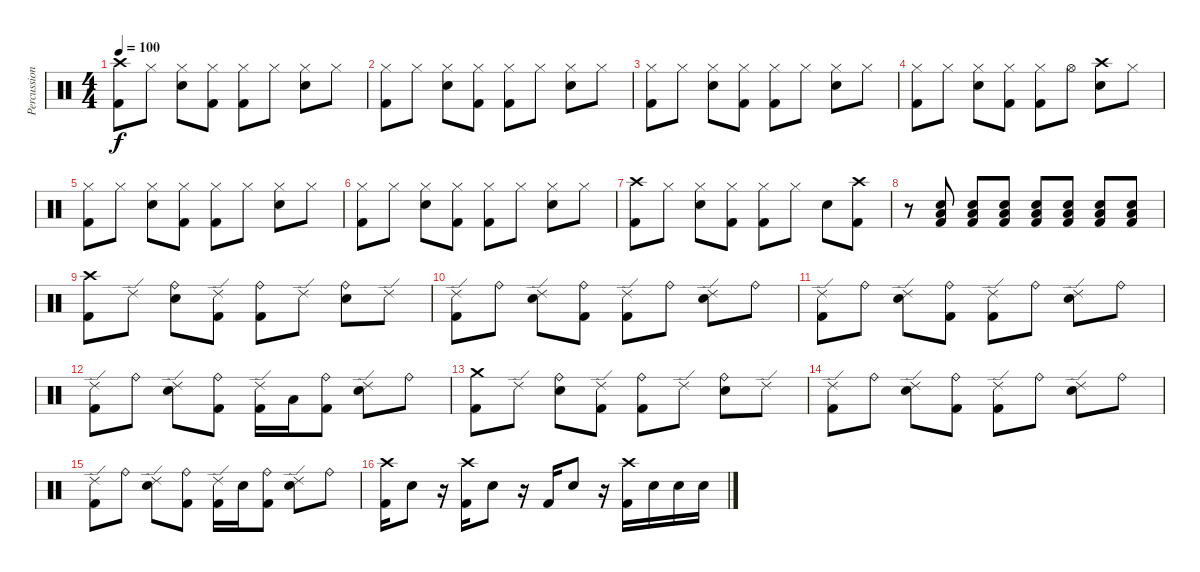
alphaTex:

\track ("Percussion" "Percussion") {instrument percussion}
\staff {score}
\articulation defaults
\ts (4 4)
\tempo 100
\clef neutral
\ks c
("Crash high (hit)" "Kick (hit) 2").8{dy f} "Hi-Hat (closed)".8 ("Hi-Hat (closed)" "Snare (hit) 2").8 ("Hi-Hat (closed)" "Kick (hit) 2").8 ("Hi-Hat (closed)" "Kick (hit) 2").8 "Hi-Hat (closed)".8 ("Hi-Hat (closed)" "Snare (hit) 2").8 "Hi-Hat (closed)".8 |
("Hi-Hat (closed)" "Kick (hit) 2").8 "Hi-Hat (closed)".8 ("Hi-Hat (closed)" "Snare (hit) 2").8 ("Hi-Hat (closed)" "Kick (hit) 2").8 ("Hi-Hat (closed)" "Kick (hit) 2").8 "Hi-Hat (closed)".8 ("Hi-Hat (closed)" "Snare (hit) 2").8 "Hi-Hat (closed)".8 |
("Hi-Hat (closed)" "Kick (hit) 2").8 "Hi-Hat (closed)".8 ("Hi-Hat (closed)" "Snare (hit) 2").8 ("Hi-Hat (closed)" "Kick (hit) 2").8 ("Hi-Hat (closed)" "Kick (hit) 2").8 "Hi-Hat (closed)".8 ("Hi-Hat (closed)" "Snare (hit) 2").8 "Hi-Hat (closed)".8 |
("Hi-Hat (closed)" "Kick (hit) 2").8 "Hi-Hat (closed)".8 ("Hi-Hat (closed)" "Snare (hit) 2").8 ("Hi-Hat (closed)" "Kick (hit) 2").8 ("Hi-Hat (closed)" "Kick (hit) 2").8 "Hi-Hat (open)".8 ("Crash high (hit)" "Snare (hit) 2").8 "Hi-Hat (closed)".8 |
("Hi-Hat (closed)" "Kick (hit) 2").8 "Hi-Hat (closed)".8 ("Hi-Hat (closed)" "Snare (hit) 2").8 ("Hi-Hat (closed)" "Kick (hit) 2").8 ("Hi-Hat (closed)" "Kick (hit) 2").8 "Hi-Hat (closed)".8 ("Hi-Hat (closed)" "Snare (hit) 2").8 "Hi-Hat (closed)".8 |
("Hi-Hat (closed)" "Kick (hit) 2").8 "Hi-Hat (closed)".8 ("Hi-Hat (closed)" "Snare (hit) 2").8 ("Hi-Hat (closed)" "Kick (hit) 2").8 ("Hi-Hat (closed)" "Kick (hit) 2").8 "Hi-Hat (closed)".8 ("Hi-Hat (closed)" "Snare (hit) 2").8 "Hi-Hat (closed)".8 |
("Crash high (hit)" "Kick (hit) 2").8 "Hi-Hat (closed)".8 ("Hi-Hat (closed)" "Snare (hit) 2").8 ("Hi-Hat (closed)" "Kick (hit) 2").8 ("Hi-Hat (closed)" "Kick (hit) 2").8 "Hi-Hat (closed)".8 "Snare (hit) 2".8 ("Crash high (hit)" "Kick (hit) 2").8 |
r.8 ("Low Floor Tom (hit)" "Snare (hit) 2" "Kick (hit) 2").8 ("Low Floor Tom (hit)" "Snare (hit) 2" "Kick (hit) 2").8 ("Low Floor Tom (hit)" "Snare (hit) 2" "Kick (hit) 2").8 ("Low Floor Tom (hit)" "Snare (hit) 2" "Kick (hit) 2").8 ("Low Floor Tom (hit)" "Snare (hit) 2" "Kick (hit) 2").8 ("Low Floor Tom (hit)" "Snare (hit) 2" "Kick (hit) 2").8 ("Low Floor Tom (hit)" "Snare (hit) 2" "Kick (hit) 2").8 |
("Crash high (hit)" "Kick (hit) 2").8 "Ride (edge) 2".8 ("Ride (bell)" "Snare (hit) 2").8 ("Ride (edge) 2" "Kick (hit) 2").8 ("Ride (bell)" "Kick (hit) 2").8 "Ride (edge) 2".8 ("Ride (bell)" "Snare (hit) 2").8 "Ride (edge) 2".8 |
("Ride (edge) 2" "Kick (hit) 2").8 "Ride (bell)".8 ("Ride (edge) 2" "Snare (hit) 2").8 ("Ride (bell)" "Kick (hit) 2").8 ("Ride (edge) 2" "Kick (hit) 2").8 "Ride (bell)".8 ("Ride (edge) 2" "Snare (hit) 2").8 "Ride (bell)".8 |
("Ride (edge) 2" "Kick (hit) 2").8 "Ride (bell)".8 ("Ride (edge) 2" "Snare (hit) 2").8 ("Ride (bell)" "Kick (hit) 2").8 ("Ride (edge) 2" "Kick (hit) 2").8 "Ride (bell)".8 ("Ride (edge) 2" "Snare (hit) 2").8 "Ride (bell)".8 |
("Ride (edge) 2" "Kick (hit) 2").8 "Ride (bell)".8 ("Ride (edge) 2" "Snare (hit) 2").8 ("Ride (bell)" "Kick (hit) 2").8 ("Ride (edge) 2" "Kick (hit) 2").16 "Low Tom (hit)".16 ("Ride (bell)" "Kick (hit) 2").8 ("Ride (edge) 2" "Snare (hit) 2").8 "Ride (bell)".8 |
("Crash medium (hit)" "Kick (hit) 2").8 "Ride (edge) 2".8 ("Ride (bell)" "Snare (hit) 2").8 ("Ride (edge) 2" "Kick (hit) 2").8 ("Ride (bell)" "Kick (hit) 2").8 "Ride (edge) 2".8 ("Ride (bell)" "Snare (hit) 2").8 "Ride (edge) 2".8 |
("Ride (edge) 2" "Kick (hit) 2").8 "Ride (bell)".8 ("Ride (edge) 2" "Snare (hit) 2").8 ("Ride (bell)" "Kick (hit) 2").8 ("Ride (edge) 2" "Kick (hit) 2").8 "Ride (bell)".8 ("Ride (edge) 2" "Snare (hit) 2").8 "Ride (bell)".8 |
("Ride (edge) 2" "Kick (hit) 2").8 "Ride (bell)".8 ("Ride (edge) 2" "Snare (hit) 2").8 ("Ride (bell)" "Kick (hit) 2").8 ("Ride (edge) 2" "Kick (hit) 2").16 "Snare (hit) 2".16 ("Ride (bell)" "Kick (hit) 2").8 ("Ride (edge) 2" "Snare (hit) 2").8 "Ride (bell)".8 |
("Crash high (hit)" "Kick (hit) 2").16 "Snare (hit) 2".8 r.16 ("Crash high (hit)" "Kick (hit) 2").16 "Snare (hit) 2".8 r.16 "Kick (hit) 2".16 "Snare (hit) 2".8 r.16 ("Crash high (hit)" "Kick (hit) 2").16 "Snare (hit) 2".16 "Snare (hit) 2".16 "Snare (hit) 2".16
